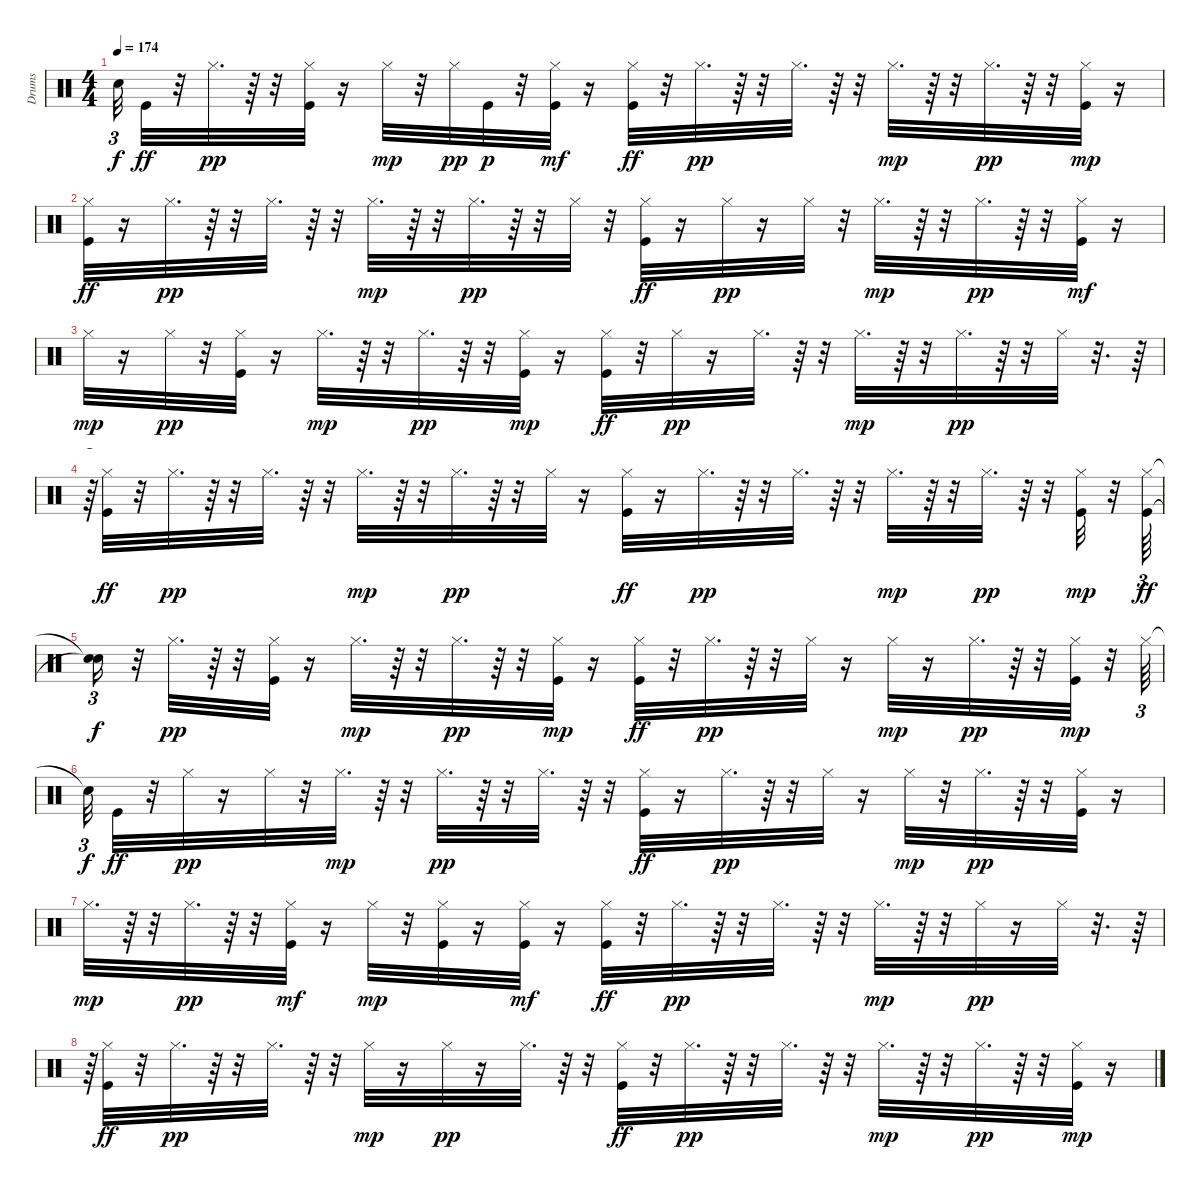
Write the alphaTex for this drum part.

\track ("Drums" "Drums") {instrument percussion}
\staff {score}
\articulation defaults
\ts (4 4)
\tempo 174
\clef neutral
\ks c "Snare (hit)"{t}.32{tu (3 2) dy f} "Kick (hit)".32{dy ff}
r.32 "Hi-Hat (closed)".32{d dy pp} r.64 r.32 ("Hi-Hat (closed)" "Kick (hit)").32 r.16 "Hi-Hat (closed)".32{dy mp} r.32 "Hi-Hat (closed)".32{dy pp} "Kick (hit)".32{dy p} r.32 ("Hi-Hat (closed)" "Kick (hit)").32{dy mf} r.16 ("Hi-Hat (closed)" "Kick (hit)").32{dy ff} r.32 "Hi-Hat (closed)".32{d dy pp} r.64 r.32 "Hi-Hat (closed)".32{d} r.64 r.32 "Hi-Hat (closed)".32{d dy mp} r.64 r.32 "Hi-Hat (closed)".32{d dy pp} r.64 r.32 ("Hi-Hat (closed)" "Kick (hit)").32{dy mp} r.16 |
("Hi-Hat (closed)" "Kick (hit)").32{dy ff} r.16 "Hi-Hat (closed)".32{d dy pp} r.64 r.32 "Hi-Hat (closed)".32{d} r.64 r.32 "Hi-Hat (closed)".32{d dy mp} r.64 r.32 "Hi-Hat (closed)".32{d dy pp} r.64 r.32 "Hi-Hat (closed)".32 r.32 ("Hi-Hat (closed)" "Kick (hit)").32{dy ff} r.16 "Hi-Hat (closed)".32{dy pp} r.16 "Hi-Hat (closed)".32 r.32 "Hi-Hat (closed)".32{d dy mp} r.64 r.32 "Hi-Hat (closed)".32{d dy pp} r.64 r.32 ("Hi-Hat (closed)" "Kick (hit)").32{dy mf} r.16 |
"Hi-Hat (closed)".32{dy mp} r.16 "Hi-Hat (closed)".32{dy pp} r.32 ("Hi-Hat (closed)" "Kick (hit)").32 r.16 "Hi-Hat (closed)".32{d dy mp} r.64 r.32 "Hi-Hat (closed)".32{d dy pp} r.64 r.32 ("Hi-Hat (closed)" "Kick (hit)").32{dy mp} r.16 ("Hi-Hat (closed)" "Kick (hit)").32{dy ff} r.32 "Hi-Hat (closed)".32{dy pp} r.16 "Hi-Hat (closed)".32{d} r.64 r.32 "Hi-Hat (closed)".32{d dy mp} r.64 r.32 "Hi-Hat (closed)".32{d dy pp} r.64 r.32 "Hi-Hat (closed)".32 r.32{d} r.64 |
r.64{tu (3 2)} ("Hi-Hat (closed)" "Kick (hit)").32{dy ff} r.32 "Hi-Hat (closed)".32{d dy pp} r.64 r.32 "Hi-Hat (closed)".32{d} r.64 r.32 "Hi-Hat (closed)".32{d dy mp} r.64 r.32 "Hi-Hat (closed)".32{d dy pp} r.64 r.32 "Hi-Hat (closed)".32 r.16 ("Hi-Hat (closed)" "Kick (hit)").32{dy ff} r.16 "Hi-Hat (closed)".32{d dy pp} r.64 r.32 "Hi-Hat (closed)".32{d} r.64 r.32 "Hi-Hat (closed)".32{d dy mp} r.64 r.32 "Hi-Hat (closed)".32{d dy pp} r.64 r.32 ("Hi-Hat (closed)" "Kick (hit)").32{dy mp} r.32 ("Hi-Hat (closed)" "Kick (hit)").64{tu (3 2) dy ff} |
("Snare (hit)"{t} "Snare (hit)"{t}).16{tu (3 2) dy f} r.32 "Hi-Hat (closed)".32{d dy pp} r.64 r.32 ("Hi-Hat (closed)" "Kick (hit)").32 r.16 "Hi-Hat (closed)".32{d dy mp} r.64 r.32 "Hi-Hat (closed)".32{d dy pp} r.64 r.32 ("Hi-Hat (closed)" "Kick (hit)").32{dy mp} r.16 ("Hi-Hat (closed)" "Kick (hit)").32{dy ff} r.32 "Hi-Hat (closed)".32{d dy pp} r.64 r.32 "Hi-Hat (closed)".32 r.16 "Hi-Hat (closed)".32{dy mp} r.16 "Hi-Hat (closed)".32{d dy pp} r.64 r.32 ("Hi-Hat (closed)" "Kick (hit)").32{dy mp} r.32 "Hi-Hat (closed)".64{tu (3 2)} |
"Snare (hit)"{t}.32{tu (3 2) dy f} "Kick (hit)".32{dy ff} r.32 "Hi-Hat (closed)".32{dy pp} r.16 "Hi-Hat (closed)".32 r.32 "Hi-Hat (closed)".32{d dy mp} r.64 r.32 "Hi-Hat (closed)".32{d dy pp} r.64 r.32 "Hi-Hat (closed)".32{d} r.64 r.32 ("Hi-Hat (closed)" "Kick (hit)").32{dy ff} r.16 "Hi-Hat (closed)".32{d dy pp} r.64 r.32 "Hi-Hat (closed)".32 r.16 "Hi-Hat (closed)".32{dy mp} r.32 "Hi-Hat (closed)".32{d dy pp} r.64 r.32 ("Hi-Hat (closed)" "Kick (hit)").32 r.16 |
"Hi-Hat (closed)".32{d dy mp} r.64 r.32 "Hi-Hat (closed)".32{d dy pp} r.64 r.32 ("Hi-Hat (closed)" "Kick (hit)").32{dy mf} r.16 "Hi-Hat (closed)".32{dy mp} r.32 ("Hi-Hat (closed)" "Kick (hit)").32 r.16 ("Hi-Hat (closed)" "Kick (hit)").32{dy mf} r.16 ("Hi-Hat (closed)" "Kick (hit)").32{dy ff} r.32 "Hi-Hat (closed)".32{d dy pp} r.64 r.32 "Hi-Hat (closed)".32{d} r.64 r.32 "Hi-Hat (closed)".32{d dy mp} r.64 r.32 "Hi-Hat (closed)".32{dy pp} r.16 "Hi-Hat (closed)".32 r.32{d} r.64 |
r.64{tu (3 2)} ("Hi-Hat (closed)" "Kick (hit)").32{dy ff} r.32 "Hi-Hat (closed)".32{d dy pp} r.64 r.32 "Hi-Hat (closed)".32{d} r.64 r.32 "Hi-Hat (closed)".32{dy mp} r.16 "Hi-Hat (closed)".32{dy pp} r.16 "Hi-Hat (closed)".32{d} r.64 r.32 ("Hi-Hat (closed)" "Kick (hit)").32{dy ff} r.32 "Hi-Hat (closed)".32{d dy pp} r.64 r.32 "Hi-Hat (closed)".32{d} r.64 r.32 "Hi-Hat (closed)".32{d dy mp} r.64 r.32 "Hi-Hat (closed)".32{d dy pp} r.64 r.32 ("Hi-Hat (closed)" "Kick (hit)").32{dy mp} r.16
